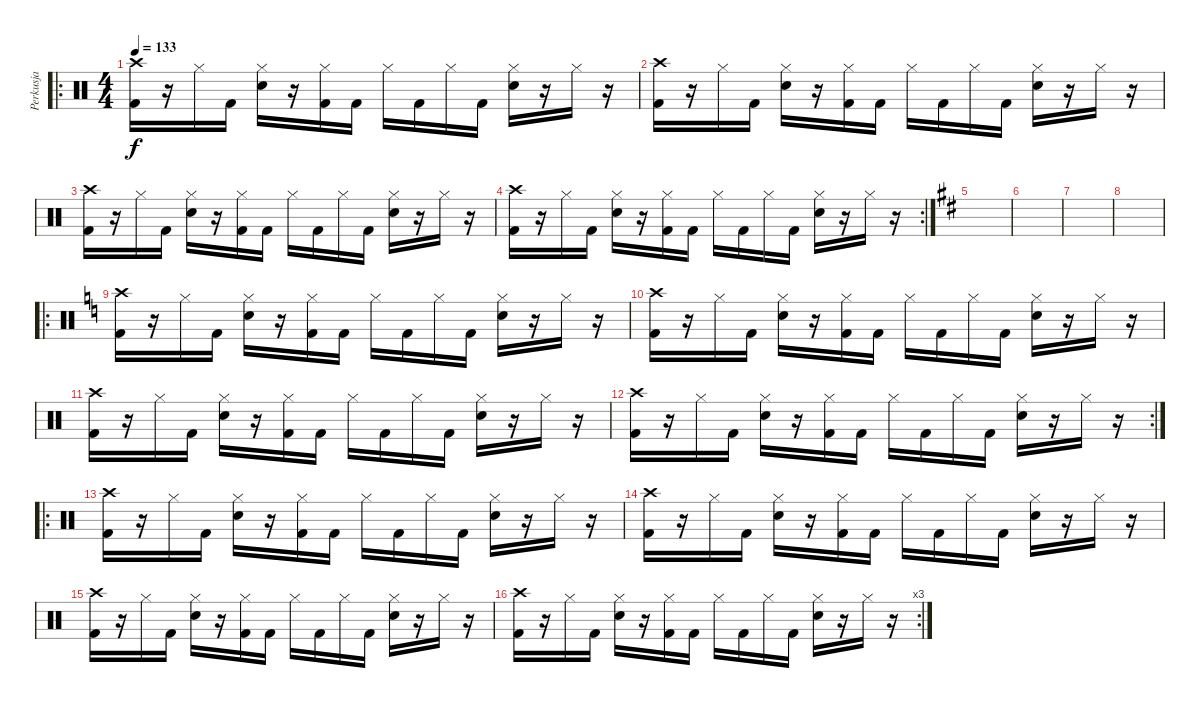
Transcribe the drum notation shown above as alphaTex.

\track ("Perkusja" "Perkusja") {instrument percussion}
\staff {score}
\articulation defaults
\ro
\ts (4 4)
\tempo 133
\clef neutral
\ks c
("Crash high (hit)" "Kick (hit) 2").16{dy f} r.16 "Hi-Hat (closed)".16 "Kick (hit) 2".16 ("Hi-Hat (closed)" "Snare (hit) 2").16 r.16 ("Hi-Hat (closed)" "Kick (hit) 2").16 "Kick (hit) 2".16 "Hi-Hat (closed)".16 "Kick (hit) 2".16 "Hi-Hat (closed)".16 "Kick (hit) 2".16 ("Hi-Hat (closed)" "Snare (hit) 2").16 r.16 "Hi-Hat (closed)".16 r.16 |
("Crash high (hit)" "Kick (hit) 2").16 r.16 "Hi-Hat (closed)".16 "Kick (hit) 2".16 ("Hi-Hat (closed)" "Snare (hit) 2").16 r.16 ("Hi-Hat (closed)" "Kick (hit) 2").16 "Kick (hit) 2".16 "Hi-Hat (closed)".16 "Kick (hit) 2".16 "Hi-Hat (closed)".16 "Kick (hit) 2".16 ("Hi-Hat (closed)" "Snare (hit) 2").16 r.16 "Hi-Hat (closed)".16 r.16 |
("Crash high (hit)" "Kick (hit) 2").16 r.16 "Hi-Hat (closed)".16 "Kick (hit) 2".16 ("Hi-Hat (closed)" "Snare (hit) 2").16 r.16 ("Hi-Hat (closed)" "Kick (hit) 2").16 "Kick (hit) 2".16 "Hi-Hat (closed)".16 "Kick (hit) 2".16 "Hi-Hat (closed)".16 "Kick (hit) 2".16 ("Hi-Hat (closed)" "Snare (hit) 2").16 r.16 "Hi-Hat (closed)".16 r.16 |
\rc 2
("Crash high (hit)" "Kick (hit) 2").16 r.16 "Hi-Hat (closed)".16 "Kick (hit) 2".16 ("Hi-Hat (closed)" "Snare (hit) 2").16 r.16 ("Hi-Hat (closed)" "Kick (hit) 2").16 "Kick (hit) 2".16 "Hi-Hat (closed)".16 "Kick (hit) 2".16 "Hi-Hat (closed)".16 "Kick (hit) 2".16 ("Hi-Hat (closed)" "Snare (hit) 2").16 r.16 "Hi-Hat (closed)".16 r.16 |
\ks d
|
|
|
|
\ro
\ks c
("Crash high (hit)" "Kick (hit) 2").16 r.16 "Hi-Hat (closed)".16 "Kick (hit) 2".16 ("Hi-Hat (closed)" "Snare (hit) 2").16 r.16 ("Hi-Hat (closed)" "Kick (hit) 2").16 "Kick (hit) 2".16 "Hi-Hat (closed)".16 "Kick (hit) 2".16 "Hi-Hat (closed)".16 "Kick (hit) 2".16 ("Hi-Hat (closed)" "Snare (hit) 2").16 r.16 "Hi-Hat (closed)".16 r.16 |
("Crash high (hit)" "Kick (hit) 2").16 r.16 "Hi-Hat (closed)".16 "Kick (hit) 2".16 ("Hi-Hat (closed)" "Snare (hit) 2").16 r.16 ("Hi-Hat (closed)" "Kick (hit) 2").16 "Kick (hit) 2".16 "Hi-Hat (closed)".16 "Kick (hit) 2".16 "Hi-Hat (closed)".16 "Kick (hit) 2".16 ("Hi-Hat (closed)" "Snare (hit) 2").16 r.16 "Hi-Hat (closed)".16 r.16 |
("Crash high (hit)" "Kick (hit) 2").16 r.16 "Hi-Hat (closed)".16 "Kick (hit) 2".16 ("Hi-Hat (closed)" "Snare (hit) 2").16 r.16 ("Hi-Hat (closed)" "Kick (hit) 2").16 "Kick (hit) 2".16 "Hi-Hat (closed)".16 "Kick (hit) 2".16 "Hi-Hat (closed)".16 "Kick (hit) 2".16 ("Hi-Hat (closed)" "Snare (hit) 2").16 r.16 "Hi-Hat (closed)".16 r.16 |
\rc 2
("Crash high (hit)" "Kick (hit) 2").16 r.16 "Hi-Hat (closed)".16 "Kick (hit) 2".16 ("Hi-Hat (closed)" "Snare (hit) 2").16 r.16 ("Hi-Hat (closed)" "Kick (hit) 2").16 "Kick (hit) 2".16 "Hi-Hat (closed)".16 "Kick (hit) 2".16 "Hi-Hat (closed)".16 "Kick (hit) 2".16 ("Hi-Hat (closed)" "Snare (hit) 2").16 r.16 "Hi-Hat (closed)".16 r.16 |
\ro
("Crash high (hit)" "Kick (hit) 2").16 r.16 "Hi-Hat (closed)".16 "Kick (hit) 2".16 ("Hi-Hat (closed)" "Snare (hit) 2").16 r.16 ("Hi-Hat (closed)" "Kick (hit) 2").16 "Kick (hit) 2".16 "Hi-Hat (closed)".16 "Kick (hit) 2".16 "Hi-Hat (closed)".16 "Kick (hit) 2".16 ("Hi-Hat (closed)" "Snare (hit) 2").16 r.16 "Hi-Hat (closed)".16 r.16 |
("Crash high (hit)" "Kick (hit) 2").16 r.16 "Hi-Hat (closed)".16 "Kick (hit) 2".16 ("Hi-Hat (closed)" "Snare (hit) 2").16 r.16 ("Hi-Hat (closed)" "Kick (hit) 2").16 "Kick (hit) 2".16 "Hi-Hat (closed)".16 "Kick (hit) 2".16 "Hi-Hat (closed)".16 "Kick (hit) 2".16 ("Hi-Hat (closed)" "Snare (hit) 2").16 r.16 "Hi-Hat (closed)".16 r.16 |
("Crash high (hit)" "Kick (hit) 2").16 r.16 "Hi-Hat (closed)".16 "Kick (hit) 2".16 ("Hi-Hat (closed)" "Snare (hit) 2").16 r.16 ("Hi-Hat (closed)" "Kick (hit) 2").16 "Kick (hit) 2".16 "Hi-Hat (closed)".16 "Kick (hit) 2".16 "Hi-Hat (closed)".16 "Kick (hit) 2".16 ("Hi-Hat (closed)" "Snare (hit) 2").16 r.16 "Hi-Hat (closed)".16 r.16 |
\rc 3
("Crash high (hit)" "Kick (hit) 2").16 r.16 "Hi-Hat (closed)".16 "Kick (hit) 2".16 ("Hi-Hat (closed)" "Snare (hit) 2").16 r.16 ("Hi-Hat (closed)" "Kick (hit) 2").16 "Kick (hit) 2".16 "Hi-Hat (closed)".16 "Kick (hit) 2".16 "Hi-Hat (closed)".16 "Kick (hit) 2".16 ("Hi-Hat (closed)" "Snare (hit) 2").16 r.16 "Hi-Hat (closed)".16 r.16
